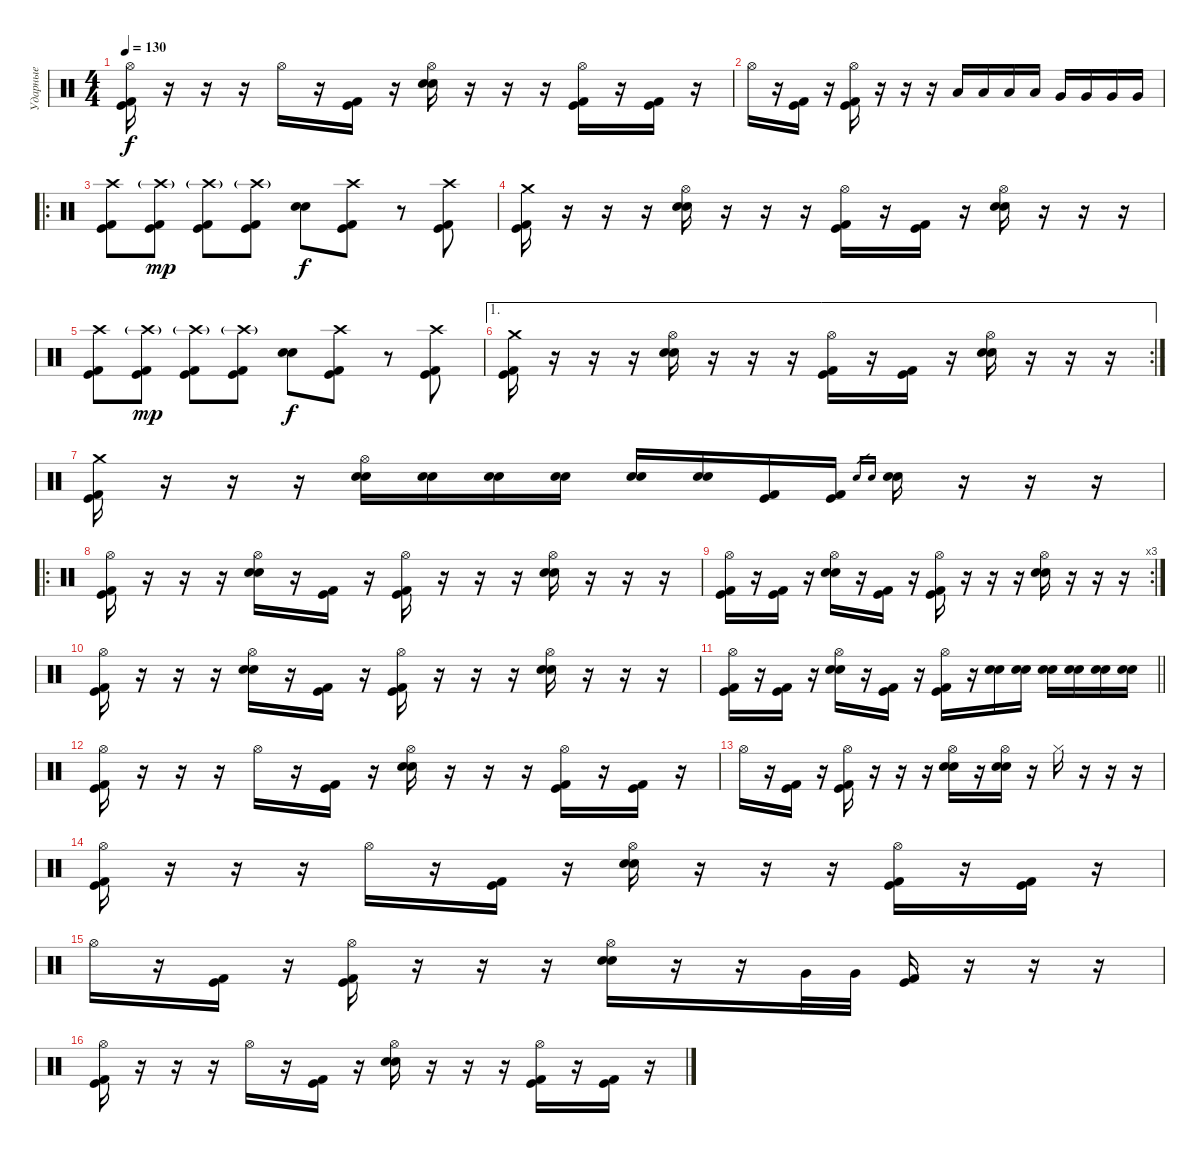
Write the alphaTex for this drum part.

\track ("Ударные" "Ударные") {instrument percussion}
\staff {score}
\articulation defaults
\ts (4 4)
\tempo 130
\clef neutral
\ks c
("Hi-Hat (open)" "Kick (hit)" "Kick (hit) 2").16{dy f} r.16 r.16 r.16 "Hi-Hat (open)".16 r.16 ("Kick (hit)" "Kick (hit) 2").16 r.16 ("Hi-Hat (open)" "Snare (hit) 2" "Electric Snare (hit)").16 r.16 r.16 r.16 ("Hi-Hat (open)" "Kick (hit)" "Kick (hit) 2").16 r.16 ("Kick (hit)" "Kick (hit) 2").16 r.16 |
"Hi-Hat (open)".16 r.16 ("Kick (hit)" "Kick (hit) 2").16 r.16 ("Hi-Hat (open)" "Kick (hit)" "Kick (hit) 2").16 r.16 r.16 r.16 "Low Tom (hit)".16 "Low Tom (hit)".16 "Low Tom (hit)".16 "Low Tom (hit)".16 "Very Low Tom (hit)".16 "Very Low Tom (hit)".16 "Very Low Tom (hit)".16 "Very Low Tom (hit)".16 |
\ro
("Crash high (hit)" "Kick (hit)" "Kick (hit) 2").8 ("Crash high (hit)"{g} "Kick (hit)" "Kick (hit) 2").8{dy mp} ("Crash high (hit)"{g} "Kick (hit)" "Kick (hit) 2").8 ("Crash high (hit)"{g} "Kick (hit)" "Kick (hit) 2").8 ("Snare (hit) 2" "Electric Snare (hit)").8{dy f} ("Crash high (hit)" "Kick (hit)" "Kick (hit) 2").8 r.8 ("Crash high (hit)" "Kick (hit)" "Kick (hit) 2").8 |
("Crash medium (hit)" "Kick (hit)" "Kick (hit) 2").16 r.16 r.16 r.16 ("Hi-Hat (open)" "Snare (hit) 2" "Electric Snare (hit)").16 r.16 r.16 r.16 ("Hi-Hat (open)" "Kick (hit)" "Kick (hit) 2").16 r.16 ("Kick (hit)" "Kick (hit) 2").16 r.16 ("Hi-Hat (open)" "Electric Snare (hit)" "Snare (hit) 2").16 r.16 r.16 r.16 |
("Crash high (hit)" "Kick (hit)" "Kick (hit) 2").8 ("Crash high (hit)"{g} "Kick (hit)" "Kick (hit) 2").8{dy mp} ("Crash high (hit)"{g} "Kick (hit)" "Kick (hit) 2").8 ("Crash high (hit)"{g} "Kick (hit)" "Kick (hit) 2").8 ("Snare (hit) 2" "Electric Snare (hit)").8{dy f} ("Crash high (hit)" "Kick (hit)" "Kick (hit) 2").8 r.8 ("Crash high (hit)" "Kick (hit)" "Kick (hit) 2").8 |
\ae 1
\rc 2
("Crash medium (hit)" "Kick (hit)" "Kick (hit) 2").16 r.16 r.16 r.16 ("Hi-Hat (open)" "Snare (hit) 2" "Electric Snare (hit)").16 r.16 r.16 r.16 ("Hi-Hat (open)" "Kick (hit)" "Kick (hit) 2").16 r.16 ("Kick (hit)" "Kick (hit) 2").16 r.16 ("Hi-Hat (open)" "Electric Snare (hit)" "Snare (hit) 2").16 r.16 r.16 r.16 |
("Crash medium (hit)" "Kick (hit)" "Kick (hit) 2").16 r.16 r.16 r.16 ("Hi-Hat (open)" "Snare (hit) 2" "Electric Snare (hit)").16 ("Snare (hit) 2" "Electric Snare (hit)").16 ("Snare (hit) 2" "Electric Snare (hit)").16 ("Snare (hit) 2" "Electric Snare (hit)").16 ("Electric Snare (hit)" "Snare (hit) 2").16 ("Electric Snare (hit)" "Snare (hit) 2").16 ("Kick (hit) 2" "Kick (hit)").16 ("Kick (hit)" "Kick (hit) 2").16 "Snare (hit) 2".16{gr} "Electric Snare (hit)".16{gr} ("Snare (hit) 2" "Electric Snare (hit)").16 r.16 r.16 r.16 |
\ro
("Hi-Hat (open)" "Kick (hit)" "Kick (hit) 2").16 r.16 r.16 r.16 ("Hi-Hat (open)" "Snare (hit) 2" "Electric Snare (hit)").16 r.16 ("Kick (hit)" "Kick (hit) 2").16 r.16 ("Hi-Hat (open)" "Kick (hit)" "Kick (hit) 2").16 r.16 r.16 r.16 ("Hi-Hat (open)" "Snare (hit) 2" "Electric Snare (hit)").16 r.16 r.16 r.16 |
\rc 3
("Hi-Hat (open)" "Kick (hit)" "Kick (hit) 2").16 r.16 ("Kick (hit)" "Kick (hit) 2").16 r.16 ("Hi-Hat (open)" "Snare (hit) 2" "Electric Snare (hit)").16 r.16 ("Kick (hit)" "Kick (hit) 2").16 r.16 ("Hi-Hat (open)" "Kick (hit)" "Kick (hit) 2").16 r.16 r.16 r.16 ("Hi-Hat (open)" "Snare (hit) 2" "Electric Snare (hit)").16 r.16 r.16 r.16 |
("Hi-Hat (open)" "Kick (hit)" "Kick (hit) 2").16 r.16 r.16 r.16 ("Hi-Hat (open)" "Snare (hit) 2" "Electric Snare (hit)").16 r.16 ("Kick (hit)" "Kick (hit) 2").16 r.16 ("Hi-Hat (open)" "Kick (hit)" "Kick (hit) 2").16 r.16 r.16 r.16 ("Hi-Hat (open)" "Snare (hit) 2" "Electric Snare (hit)").16 r.16 r.16 r.16 |
\barLineRight lightlight
("Hi-Hat (open)" "Kick (hit)" "Kick (hit) 2").16 r.16 ("Kick (hit)" "Kick (hit) 2").16 r.16 ("Hi-Hat (open)" "Snare (hit) 2" "Electric Snare (hit)").16 r.16 ("Kick (hit)" "Kick (hit) 2").16 r.16 ("Hi-Hat (open)" "Kick (hit)" "Kick (hit) 2").16 r.16 ("Snare (hit) 2" "Electric Snare (hit)").16 ("Electric Snare (hit)" "Snare (hit) 2").16 ("Snare (hit) 2" "Electric Snare (hit)").16 ("Snare (hit) 2" "Electric Snare (hit)").16 ("Electric Snare (hit)" "Snare (hit) 2").16 ("Snare (hit) 2" "Electric Snare (hit)").16 |
("Hi-Hat (open)" "Kick (hit)" "Kick (hit) 2").16 r.16 r.16 r.16 "Hi-Hat (open)".16 r.16 ("Kick (hit)" "Kick (hit) 2").16 r.16 ("Hi-Hat (open)" "Snare (hit) 2" "Electric Snare (hit)").16 r.16 r.16 r.16 ("Hi-Hat (open)" "Kick (hit)" "Kick (hit) 2").16 r.16 ("Kick (hit)" "Kick (hit) 2").16 r.16 |
"Hi-Hat (open)".16 r.16 ("Kick (hit)" "Kick (hit) 2").16 r.16 ("Hi-Hat (open)" "Kick (hit)" "Kick (hit) 2").16 r.16 r.16 r.16 ("Hi-Hat (open)" "Snare (hit) 2" "Electric Snare (hit)").16 r.16 ("Hi-Hat (open)" "Snare (hit) 2" "Electric Snare (hit)").16 r.16 "Hi-Hat (closed)".16 r.16 r.16 r.16 |
("Hi-Hat (open)" "Kick (hit)" "Kick (hit) 2").16 r.16 r.16 r.16 "Hi-Hat (open)".16 r.16 ("Kick (hit)" "Kick (hit) 2").16 r.16 ("Hi-Hat (open)" "Snare (hit) 2" "Electric Snare (hit)").16 r.16 r.16 r.16 ("Hi-Hat (open)" "Kick (hit)" "Kick (hit) 2").16 r.16 ("Kick (hit)" "Kick (hit) 2").16 r.16 |
"Hi-Hat (open)".16 r.16 ("Kick (hit)" "Kick (hit) 2").16 r.16 ("Hi-Hat (open)" "Kick (hit)" "Kick (hit) 2").16 r.16 r.16 r.16 ("Hi-Hat (open)" "Snare (hit) 2" "Electric Snare (hit)").16 r.16 r.16 "Very Low Tom (hit)".32 "Very Low Tom (hit)".32 ("Kick (hit)" "Kick (hit) 2").16 r.16 r.16 r.16 |
("Hi-Hat (open)" "Kick (hit)" "Kick (hit) 2").16 r.16 r.16 r.16 "Hi-Hat (open)".16 r.16 ("Kick (hit)" "Kick (hit) 2").16 r.16 ("Hi-Hat (open)" "Snare (hit) 2" "Electric Snare (hit)").16 r.16 r.16 r.16 ("Hi-Hat (open)" "Kick (hit)" "Kick (hit) 2").16 r.16 ("Kick (hit)" "Kick (hit) 2").16 r.16
